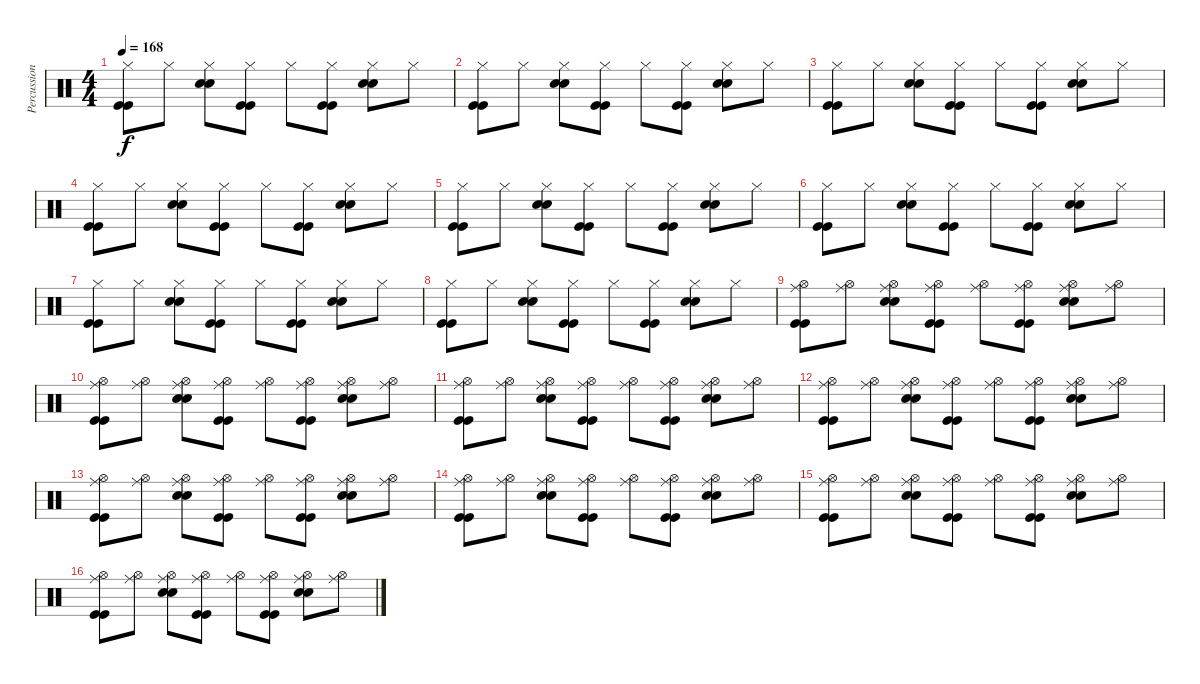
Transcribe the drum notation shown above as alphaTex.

\track ("Percussion" "Percussion") {instrument percussion}
\staff {score}
\articulation defaults
\ts (4 4)
\tempo 168
\clef neutral
\ks c
("Kick (hit)" "Hi-Hat (closed)" "Kick (hit)").8{dy f} "Hi-Hat (closed)".8 ("Snare (hit) 2" "Hi-Hat (closed)" "Snare (hit) 2").8 ("Kick (hit)" "Hi-Hat (closed)" "Kick (hit)").8 "Hi-Hat (closed)".8 ("Kick (hit)" "Hi-Hat (closed)" "Kick (hit)").8 ("Snare (hit) 2" "Hi-Hat (closed)" "Snare (hit) 2").8 "Hi-Hat (closed)".8 |
("Kick (hit)" "Hi-Hat (closed)" "Kick (hit)").8 "Hi-Hat (closed)".8 ("Snare (hit) 2" "Hi-Hat (closed)" "Snare (hit) 2").8 ("Kick (hit)" "Hi-Hat (closed)" "Kick (hit)").8 "Hi-Hat (closed)".8 ("Kick (hit)" "Hi-Hat (closed)" "Kick (hit)").8 ("Snare (hit) 2" "Hi-Hat (closed)" "Snare (hit) 2").8 "Hi-Hat (closed)".8 |
("Kick (hit)" "Hi-Hat (closed)" "Kick (hit)").8 "Hi-Hat (closed)".8 ("Snare (hit) 2" "Hi-Hat (closed)" "Snare (hit) 2").8 ("Kick (hit)" "Hi-Hat (closed)" "Kick (hit)").8 "Hi-Hat (closed)".8 ("Kick (hit)" "Hi-Hat (closed)" "Kick (hit)").8 ("Snare (hit) 2" "Hi-Hat (closed)" "Snare (hit) 2").8 "Hi-Hat (closed)".8 |
("Kick (hit)" "Hi-Hat (closed)" "Kick (hit)").8 "Hi-Hat (closed)".8 ("Snare (hit) 2" "Hi-Hat (closed)" "Snare (hit) 2").8 ("Kick (hit)" "Hi-Hat (closed)" "Kick (hit)").8 "Hi-Hat (closed)".8 ("Kick (hit)" "Hi-Hat (closed)" "Kick (hit)").8 ("Snare (hit) 2" "Hi-Hat (closed)" "Snare (hit) 2").8 "Hi-Hat (closed)".8 |
("Kick (hit)" "Hi-Hat (closed)" "Kick (hit)").8 "Hi-Hat (closed)".8 ("Snare (hit) 2" "Hi-Hat (closed)" "Snare (hit) 2").8 ("Kick (hit)" "Hi-Hat (closed)" "Kick (hit)").8 "Hi-Hat (closed)".8 ("Kick (hit)" "Hi-Hat (closed)" "Kick (hit)").8 ("Snare (hit) 2" "Hi-Hat (closed)" "Snare (hit) 2").8 "Hi-Hat (closed)".8 |
("Kick (hit)" "Hi-Hat (closed)" "Kick (hit)").8 "Hi-Hat (closed)".8 ("Snare (hit) 2" "Hi-Hat (closed)" "Snare (hit) 2").8 ("Kick (hit)" "Hi-Hat (closed)" "Kick (hit)").8 "Hi-Hat (closed)".8 ("Kick (hit)" "Hi-Hat (closed)" "Kick (hit)").8 ("Snare (hit) 2" "Hi-Hat (closed)" "Snare (hit) 2").8 "Hi-Hat (closed)".8 |
("Kick (hit)" "Hi-Hat (closed)" "Kick (hit)").8 "Hi-Hat (closed)".8 ("Snare (hit) 2" "Hi-Hat (closed)" "Snare (hit) 2").8 ("Kick (hit)" "Hi-Hat (closed)" "Kick (hit)").8 "Hi-Hat (closed)".8 ("Kick (hit)" "Hi-Hat (closed)" "Kick (hit)").8 ("Snare (hit) 2" "Hi-Hat (closed)" "Snare (hit) 2").8 "Hi-Hat (closed)".8 |
("Kick (hit)" "Hi-Hat (closed)" "Kick (hit)").8 "Hi-Hat (closed)".8 ("Snare (hit) 2" "Hi-Hat (closed)" "Snare (hit) 2").8 ("Kick (hit)" "Hi-Hat (closed)" "Kick (hit)").8 "Hi-Hat (closed)".8 ("Kick (hit)" "Hi-Hat (closed)" "Kick (hit)").8 ("Snare (hit) 2" "Hi-Hat (closed)" "Snare (hit) 2").8 "Hi-Hat (closed)".8 |
("Ride (middle)" "Kick (hit)" "Hi-Hat (open)" "Kick (hit)").8 ("Ride (middle)" "Hi-Hat (open)").8 ("Ride (middle)" "Snare (hit) 2" "Hi-Hat (open)" "Snare (hit) 2").8 ("Ride (middle)" "Kick (hit)" "Hi-Hat (open)" "Kick (hit)").8 ("Ride (middle)" "Hi-Hat (open)").8 ("Ride (middle)" "Kick (hit)" "Hi-Hat (open)" "Kick (hit)").8 ("Ride (middle)" "Snare (hit) 2" "Hi-Hat (open)" "Snare (hit) 2").8 ("Ride (middle)" "Hi-Hat (open)").8 |
("Ride (middle)" "Kick (hit)" "Hi-Hat (open)" "Kick (hit)").8 ("Ride (middle)" "Hi-Hat (open)").8 ("Ride (middle)" "Snare (hit) 2" "Hi-Hat (open)" "Snare (hit) 2").8 ("Ride (middle)" "Kick (hit)" "Hi-Hat (open)" "Kick (hit)").8 ("Ride (middle)" "Hi-Hat (open)").8 ("Ride (middle)" "Kick (hit)" "Hi-Hat (open)" "Kick (hit)").8 ("Ride (middle)" "Snare (hit) 2" "Hi-Hat (open)" "Snare (hit) 2").8 ("Ride (middle)" "Hi-Hat (open)").8 |
("Ride (middle)" "Kick (hit)" "Hi-Hat (open)" "Kick (hit)").8 ("Ride (middle)" "Hi-Hat (open)").8 ("Ride (middle)" "Snare (hit) 2" "Hi-Hat (open)" "Snare (hit) 2").8 ("Ride (middle)" "Kick (hit)" "Hi-Hat (open)" "Kick (hit)").8 ("Ride (middle)" "Hi-Hat (open)").8 ("Ride (middle)" "Kick (hit)" "Hi-Hat (open)" "Kick (hit)").8 ("Ride (middle)" "Snare (hit) 2" "Hi-Hat (open)" "Snare (hit) 2").8 ("Ride (middle)" "Hi-Hat (open)").8 |
("Ride (middle)" "Kick (hit)" "Hi-Hat (open)" "Kick (hit)").8 ("Ride (middle)" "Hi-Hat (open)").8 ("Ride (middle)" "Snare (hit) 2" "Hi-Hat (open)" "Snare (hit) 2").8 ("Ride (middle)" "Kick (hit)" "Hi-Hat (open)" "Kick (hit)").8 ("Ride (middle)" "Hi-Hat (open)").8 ("Ride (middle)" "Kick (hit)" "Hi-Hat (open)" "Kick (hit)").8 ("Ride (middle)" "Snare (hit) 2" "Hi-Hat (open)" "Snare (hit) 2").8 ("Ride (middle)" "Hi-Hat (open)").8 |
("Ride (middle)" "Kick (hit)" "Hi-Hat (open)" "Kick (hit)").8 ("Ride (middle)" "Hi-Hat (open)").8 ("Ride (middle)" "Snare (hit) 2" "Hi-Hat (open)" "Snare (hit) 2").8 ("Ride (middle)" "Kick (hit)" "Hi-Hat (open)" "Kick (hit)").8 ("Ride (middle)" "Hi-Hat (open)").8 ("Ride (middle)" "Kick (hit)" "Hi-Hat (open)" "Kick (hit)").8 ("Ride (middle)" "Snare (hit) 2" "Hi-Hat (open)" "Snare (hit) 2").8 ("Ride (middle)" "Hi-Hat (open)").8 |
("Ride (middle)" "Kick (hit)" "Hi-Hat (open)" "Kick (hit)").8 ("Ride (middle)" "Hi-Hat (open)").8 ("Ride (middle)" "Snare (hit) 2" "Hi-Hat (open)" "Snare (hit) 2").8 ("Ride (middle)" "Kick (hit)" "Hi-Hat (open)" "Kick (hit)").8 ("Ride (middle)" "Hi-Hat (open)").8 ("Ride (middle)" "Kick (hit)" "Hi-Hat (open)" "Kick (hit)").8 ("Ride (middle)" "Snare (hit) 2" "Hi-Hat (open)" "Snare (hit) 2").8 ("Ride (middle)" "Hi-Hat (open)").8 |
("Ride (middle)" "Kick (hit)" "Hi-Hat (open)" "Kick (hit)").8 ("Ride (middle)" "Hi-Hat (open)").8 ("Ride (middle)" "Snare (hit) 2" "Hi-Hat (open)" "Snare (hit) 2").8 ("Ride (middle)" "Kick (hit)" "Hi-Hat (open)" "Kick (hit)").8 ("Ride (middle)" "Hi-Hat (open)").8 ("Ride (middle)" "Kick (hit)" "Hi-Hat (open)" "Kick (hit)").8 ("Ride (middle)" "Snare (hit) 2" "Hi-Hat (open)" "Snare (hit) 2").8 ("Ride (middle)" "Hi-Hat (open)").8 |
("Ride (middle)" "Kick (hit)" "Hi-Hat (open)" "Kick (hit)").8 ("Ride (middle)" "Hi-Hat (open)").8 ("Ride (middle)" "Snare (hit) 2" "Hi-Hat (open)" "Snare (hit) 2").8 ("Ride (middle)" "Kick (hit)" "Hi-Hat (open)" "Kick (hit)").8 ("Ride (middle)" "Hi-Hat (open)").8 ("Ride (middle)" "Kick (hit)" "Hi-Hat (open)" "Kick (hit)").8 ("Ride (middle)" "Snare (hit) 2" "Hi-Hat (open)" "Snare (hit) 2").8 ("Ride (middle)" "Hi-Hat (open)").8
